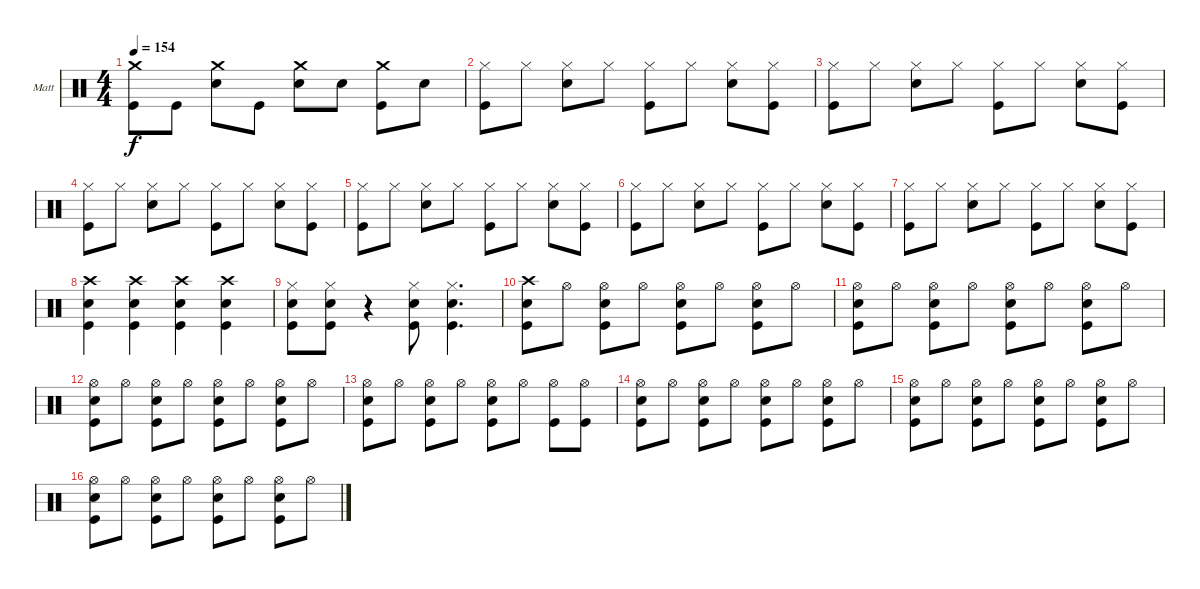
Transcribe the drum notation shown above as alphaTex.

\defaultSystemsLayout 4
\bracketExtendMode groupsimilarinstruments
\firstSystemTrackNameOrientation horizontal
\otherSystemsTrackNameOrientation horizontal
\track ("Matt Helders" "Matt") {instrument percussion}
\staff {score}
\articulation defaults
\ts (4 4)
\tempo 154
\clef neutral
\ks c
("Crash medium (hit)" "Kick (hit)").8{dy f} "Kick (hit)".8 ("Crash medium (hit)" "Snare (hit) 2").8 "Kick (hit)".8 ("Crash medium (hit)" "Snare (hit) 2").8 "Snare (hit) 2".8 ("Crash medium (hit)" "Kick (hit)").8 "Snare (hit) 2".8 |
("Hi-Hat (closed)" "Kick (hit)").8 "Hi-Hat (closed)".8 ("Hi-Hat (closed)" "Snare (hit) 2").8 "Hi-Hat (closed)".8 ("Hi-Hat (closed)" "Kick (hit)").8 "Hi-Hat (closed)".8 ("Hi-Hat (closed)" "Snare (hit) 2").8 ("Hi-Hat (closed)" "Kick (hit)").8 |
("Hi-Hat (closed)" "Kick (hit)").8 "Hi-Hat (closed)".8 ("Hi-Hat (closed)" "Snare (hit) 2").8 "Hi-Hat (closed)".8 ("Hi-Hat (closed)" "Kick (hit)").8 "Hi-Hat (closed)".8 ("Hi-Hat (closed)" "Snare (hit) 2").8 ("Hi-Hat (closed)" "Kick (hit)").8 |
("Hi-Hat (closed)" "Kick (hit)").8 "Hi-Hat (closed)".8 ("Hi-Hat (closed)" "Snare (hit) 2").8 "Hi-Hat (closed)".8 ("Hi-Hat (closed)" "Kick (hit)").8 "Hi-Hat (closed)".8 ("Hi-Hat (closed)" "Snare (hit) 2").8 ("Hi-Hat (closed)" "Kick (hit)").8 |
("Hi-Hat (closed)" "Kick (hit)").8 "Hi-Hat (closed)".8 ("Hi-Hat (closed)" "Snare (hit) 2").8 "Hi-Hat (closed)".8 ("Hi-Hat (closed)" "Kick (hit)").8 "Hi-Hat (closed)".8 ("Hi-Hat (closed)" "Snare (hit) 2").8 ("Hi-Hat (closed)" "Kick (hit)").8 |
("Hi-Hat (closed)" "Kick (hit)").8 "Hi-Hat (closed)".8 ("Hi-Hat (closed)" "Snare (hit) 2").8 "Hi-Hat (closed)".8 ("Hi-Hat (closed)" "Kick (hit)").8 "Hi-Hat (closed)".8 ("Hi-Hat (closed)" "Snare (hit) 2").8 ("Hi-Hat (closed)" "Kick (hit)").8 |
("Hi-Hat (closed)" "Kick (hit)").8 "Hi-Hat (closed)".8 ("Hi-Hat (closed)" "Snare (hit) 2").8 "Hi-Hat (closed)".8 ("Hi-Hat (closed)" "Kick (hit)").8 "Hi-Hat (closed)".8 ("Hi-Hat (closed)" "Snare (hit) 2").8 ("Hi-Hat (closed)" "Kick (hit)").8 |
("Kick (hit)" "Snare (hit) 2" "Crash high (hit)").4 ("Kick (hit)" "Snare (hit) 2" "Crash high (hit)").4 ("Kick (hit)" "Snare (hit) 2" "Crash high (hit)").4 ("Kick (hit)" "Snare (hit) 2" "Crash high (hit)").4 |
("Kick (hit)" "Snare (hit) 2" "Hi-Hat (closed)").8 ("Kick (hit)" "Snare (hit) 2" "Hi-Hat (closed)").8 r.4 ("Kick (hit)" "Snare (hit) 2" "Hi-Hat (closed)").8 ("Kick (hit)" "Snare (hit) 2" "Hi-Hat (closed)").4{d} |
("Kick (hit)" "Crash high (hit)" "Snare (hit) 2").8 "Hi-Hat (open)".8 ("Hi-Hat (open)" "Kick (hit)" "Snare (hit) 2").8 "Hi-Hat (open)".8 ("Hi-Hat (open)" "Kick (hit)" "Snare (hit) 2").8 "Hi-Hat (open)".8 ("Hi-Hat (open)" "Kick (hit)" "Snare (hit) 2").8 "Hi-Hat (open)".8 |
("Kick (hit)" "Snare (hit) 2" "Hi-Hat (open)").8 "Hi-Hat (open)".8 ("Hi-Hat (open)" "Kick (hit)" "Snare (hit) 2").8 "Hi-Hat (open)".8 ("Hi-Hat (open)" "Kick (hit)" "Snare (hit) 2").8 "Hi-Hat (open)".8 ("Hi-Hat (open)" "Kick (hit)" "Snare (hit) 2").8 "Hi-Hat (open)".8 |
("Kick (hit)" "Snare (hit) 2" "Hi-Hat (open)").8 "Hi-Hat (open)".8 ("Kick (hit)" "Snare (hit) 2" "Hi-Hat (open)").8 "Hi-Hat (open)".8 ("Hi-Hat (open)" "Kick (hit)" "Snare (hit) 2").8 "Hi-Hat (open)".8 ("Hi-Hat (open)" "Kick (hit)" "Snare (hit) 2").8 "Hi-Hat (open)".8 |
("Kick (hit)" "Snare (hit) 2" "Hi-Hat (open)").8 "Hi-Hat (open)".8 ("Hi-Hat (open)" "Kick (hit)" "Snare (hit) 2").8 "Hi-Hat (open)".8 ("Hi-Hat (open)" "Kick (hit)" "Snare (hit) 2").8 "Hi-Hat (open)".8 ("Hi-Hat (open)" "Kick (hit)").8 ("Hi-Hat (open)" "Kick (hit)").8 |
("Kick (hit)" "Snare (hit) 2" "Hi-Hat (open)").8 "Hi-Hat (open)".8 ("Hi-Hat (open)" "Kick (hit)" "Snare (hit) 2").8 "Hi-Hat (open)".8 ("Hi-Hat (open)" "Kick (hit)" "Snare (hit) 2").8 "Hi-Hat (open)".8 ("Hi-Hat (open)" "Kick (hit)" "Snare (hit) 2").8 "Hi-Hat (open)".8 |
("Kick (hit)" "Snare (hit) 2" "Hi-Hat (open)").8 "Hi-Hat (open)".8 ("Hi-Hat (open)" "Kick (hit)" "Snare (hit) 2").8 "Hi-Hat (open)".8 ("Hi-Hat (open)" "Kick (hit)" "Snare (hit) 2").8 "Hi-Hat (open)".8 ("Hi-Hat (open)" "Kick (hit)" "Snare (hit) 2").8 "Hi-Hat (open)".8 |
("Kick (hit)" "Snare (hit) 2" "Hi-Hat (open)").8 "Hi-Hat (open)".8 ("Hi-Hat (open)" "Kick (hit)" "Snare (hit) 2").8 "Hi-Hat (open)".8 ("Hi-Hat (open)" "Kick (hit)" "Snare (hit) 2").8 "Hi-Hat (open)".8 ("Hi-Hat (open)" "Kick (hit)" "Snare (hit) 2").8 "Hi-Hat (open)".8
